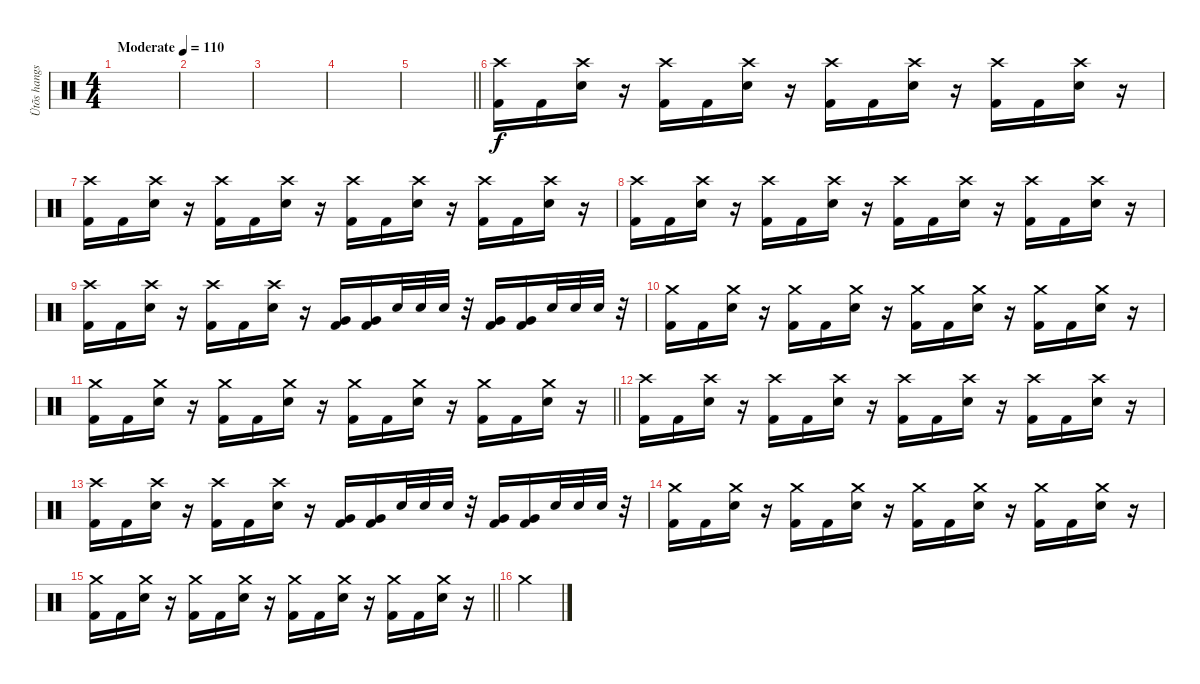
\track ("Ütõs hangszer" "Ütõs hangs") {instrument percussion}
\staff {score}
\articulation defaults
\ts (4 4)
\tempo (110 "Moderate")
\clef neutral
\ks c
|
|
|
|
\barLineRight lightlight
|
("Crash high (hit)" "Kick (hit) 2").16 "Kick (hit) 2".16 ("Crash high (hit)" "Snare (hit) 2").16 r.16 ("Crash high (hit)" "Kick (hit) 2").16 "Kick (hit) 2".16 ("Crash high (hit)" "Snare (hit) 2").16 r.16 ("Crash high (hit)" "Kick (hit) 2").16 "Kick (hit) 2".16 ("Crash high (hit)" "Snare (hit) 2").16 r.16 ("Crash high (hit)" "Kick (hit) 2").16 "Kick (hit) 2".16 ("Crash high (hit)" "Snare (hit) 2").16 r.16 |
("Crash high (hit)" "Kick (hit) 2").16 "Kick (hit) 2".16 ("Crash high (hit)" "Snare (hit) 2").16 r.16 ("Crash high (hit)" "Kick (hit) 2").16 "Kick (hit) 2".16 ("Crash high (hit)" "Snare (hit) 2").16 r.16 ("Crash high (hit)" "Kick (hit) 2").16 "Kick (hit) 2".16 ("Crash high (hit)" "Snare (hit) 2").16 r.16 ("Crash high (hit)" "Kick (hit) 2").16 "Kick (hit) 2".16 ("Crash high (hit)" "Snare (hit) 2").16 r.16 |
("Crash high (hit)" "Kick (hit) 2").16 "Kick (hit) 2".16 ("Crash high (hit)" "Snare (hit) 2").16 r.16 ("Crash high (hit)" "Kick (hit) 2").16 "Kick (hit) 2".16 ("Crash high (hit)" "Snare (hit) 2").16 r.16 ("Crash high (hit)" "Kick (hit) 2").16 "Kick (hit) 2".16 ("Crash high (hit)" "Snare (hit) 2").16 r.16 ("Crash high (hit)" "Kick (hit) 2").16 "Kick (hit) 2".16 ("Crash high (hit)" "Snare (hit) 2").16 r.16 |
("Crash high (hit)" "Kick (hit) 2").16 "Kick (hit) 2".16 ("Crash high (hit)" "Snare (hit) 2").16 r.16 ("Crash high (hit)" "Kick (hit) 2").16 "Kick (hit) 2".16 ("Crash high (hit)" "Snare (hit) 2").16 r.16 ("Very Low Tom (hit)" "Kick (hit) 2").16 ("Very Low Tom (hit)" "Kick (hit) 2").16 "Snare (hit) 2".32 "Snare (hit) 2".32 "Snare (hit) 2".32 r.32 ("Very Low Tom (hit)" "Kick (hit) 2").16 ("Very Low Tom (hit)" "Kick (hit) 2").16 "Snare (hit) 2".32 "Snare (hit) 2".32 "Snare (hit) 2".32 r.32 |
("Crash medium (hit)" "Kick (hit) 2").16 "Kick (hit) 2".16 ("Crash medium (hit)" "Snare (hit) 2").16 r.16 ("Crash medium (hit)" "Kick (hit) 2").16 "Kick (hit) 2".16 ("Crash medium (hit)" "Snare (hit) 2").16 r.16 ("Crash medium (hit)" "Kick (hit) 2").16 "Kick (hit) 2".16 ("Crash medium (hit)" "Snare (hit) 2").16 r.16 ("Crash medium (hit)" "Kick (hit) 2").16 "Kick (hit) 2".16 ("Crash medium (hit)" "Snare (hit) 2").16 r.16 |
\barLineRight lightlight
("Crash medium (hit)" "Kick (hit) 2").16 "Kick (hit) 2".16 ("Crash medium (hit)" "Snare (hit) 2").16 r.16 ("Crash medium (hit)" "Kick (hit) 2").16 "Kick (hit) 2".16 ("Crash medium (hit)" "Snare (hit) 2").16 r.16 ("Crash medium (hit)" "Kick (hit) 2").16 "Kick (hit) 2".16 ("Crash medium (hit)" "Snare (hit) 2").16 r.16 ("Crash medium (hit)" "Kick (hit) 2").16 "Kick (hit) 2".16 ("Crash medium (hit)" "Snare (hit) 2").16 r.16 |
("Crash high (hit)" "Kick (hit) 2").16 "Kick (hit) 2".16 ("Crash high (hit)" "Snare (hit) 2").16 r.16 ("Crash high (hit)" "Kick (hit) 2").16 "Kick (hit) 2".16 ("Crash high (hit)" "Snare (hit) 2").16 r.16 ("Crash high (hit)" "Kick (hit) 2").16 "Kick (hit) 2".16 ("Crash high (hit)" "Snare (hit) 2").16 r.16 ("Crash high (hit)" "Kick (hit) 2").16 "Kick (hit) 2".16 ("Crash high (hit)" "Snare (hit) 2").16 r.16 |
("Crash high (hit)" "Kick (hit) 2").16 "Kick (hit) 2".16 ("Crash high (hit)" "Snare (hit) 2").16 r.16 ("Crash high (hit)" "Kick (hit) 2").16 "Kick (hit) 2".16 ("Crash high (hit)" "Snare (hit) 2").16 r.16 ("Very Low Tom (hit)" "Kick (hit) 2").16 ("Very Low Tom (hit)" "Kick (hit) 2").16 "Snare (hit) 2".32 "Snare (hit) 2".32 "Snare (hit) 2".32 r.32 ("Very Low Tom (hit)" "Kick (hit) 2").16 ("Very Low Tom (hit)" "Kick (hit) 2").16 "Snare (hit) 2".32 "Snare (hit) 2".32 "Snare (hit) 2".32 r.32 |
("Crash medium (hit)" "Kick (hit) 2").16 "Kick (hit) 2".16 ("Crash medium (hit)" "Snare (hit) 2").16 r.16 ("Crash medium (hit)" "Kick (hit) 2").16 "Kick (hit) 2".16 ("Crash medium (hit)" "Snare (hit) 2").16 r.16 ("Crash medium (hit)" "Kick (hit) 2").16 "Kick (hit) 2".16 ("Crash medium (hit)" "Snare (hit) 2").16 r.16 ("Crash medium (hit)" "Kick (hit) 2").16 "Kick (hit) 2".16 ("Crash medium (hit)" "Snare (hit) 2").16 r.16 |
\barLineRight lightlight
("Crash medium (hit)" "Kick (hit) 2").16 "Kick (hit) 2".16 ("Crash medium (hit)" "Snare (hit) 2").16 r.16 ("Crash medium (hit)" "Kick (hit) 2").16 "Kick (hit) 2".16 ("Crash medium (hit)" "Snare (hit) 2").16 r.16 ("Crash medium (hit)" "Kick (hit) 2").16 "Kick (hit) 2".16 ("Crash medium (hit)" "Snare (hit) 2").16 r.16 ("Crash medium (hit)" "Kick (hit) 2").16 "Kick (hit) 2".16 ("Crash medium (hit)" "Snare (hit) 2").16 r.16 |
"Crash medium (hit)".4
